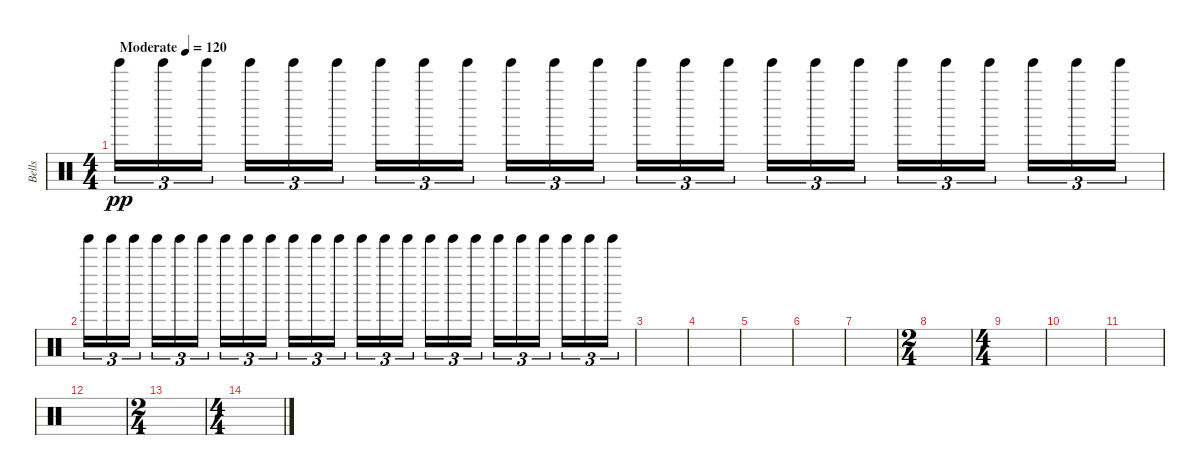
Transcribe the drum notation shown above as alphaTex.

\track ("Bells" "Bells") {instrument percussion}
\staff {score}
\articulation defaults
\ts (4 4)
\tempo (120 "Moderate")
\clef neutral
\ks c "Tinkle Bell (hit)".16{tu (3 2) dy pp} "Tinkle Bell (hit)".16{tu (3 2)} "Tinkle Bell (hit)".16{tu (3 2) beam splitsecondary} "Tinkle Bell (hit)".16{tu (3 2)} "Tinkle Bell (hit)".16{tu (3 2)} "Tinkle Bell (hit)".16{tu (3 2)} "Tinkle Bell (hit)".16{tu (3 2)} "Tinkle Bell (hit)".16{tu (3 2)} "Tinkle Bell (hit)".16{tu (3 2) beam splitsecondary} "Tinkle Bell (hit)".16{tu (3 2)} "Tinkle Bell (hit)".16{tu (3 2)} "Tinkle Bell (hit)".16{tu (3 2)} "Tinkle Bell (hit)".16{tu (3 2)} "Tinkle Bell (hit)".16{tu (3 2)} "Tinkle Bell (hit)".16{tu (3 2) beam splitsecondary} "Tinkle Bell (hit)".16{tu (3 2)} "Tinkle Bell (hit)".16{tu (3 2)} "Tinkle Bell (hit)".16{tu (3 2)} "Tinkle Bell (hit)".16{tu (3 2)} "Tinkle Bell (hit)".16{tu (3 2)} "Tinkle Bell (hit)".16{tu (3 2) beam splitsecondary} "Tinkle Bell (hit)".16{tu (3 2)} "Tinkle Bell (hit)".16{tu (3 2)} "Tinkle Bell (hit)".16{tu (3 2)}
|
"Tinkle Bell (hit)".16{tu (3 2)} "Tinkle Bell (hit)".16{tu (3 2)} "Tinkle Bell (hit)".16{tu (3 2) beam splitsecondary} "Tinkle Bell (hit)".16{tu (3 2)} "Tinkle Bell (hit)".16{tu (3 2)} "Tinkle Bell (hit)".16{tu (3 2)} "Tinkle Bell (hit)".16{tu (3 2)} "Tinkle Bell (hit)".16{tu (3 2)} "Tinkle Bell (hit)".16{tu (3 2) beam splitsecondary} "Tinkle Bell (hit)".16{tu (3 2)} "Tinkle Bell (hit)".16{tu (3 2)} "Tinkle Bell (hit)".16{tu (3 2)} "Tinkle Bell (hit)".16{tu (3 2)} "Tinkle Bell (hit)".16{tu (3 2)} "Tinkle Bell (hit)".16{tu (3 2) beam splitsecondary} "Tinkle Bell (hit)".16{tu (3 2)} "Tinkle Bell (hit)".16{tu (3 2)} "Tinkle Bell (hit)".16{tu (3 2)} "Tinkle Bell (hit)".16{tu (3 2)} "Tinkle Bell (hit)".16{tu (3 2)} "Tinkle Bell (hit)".16{tu (3 2) beam splitsecondary} "Tinkle Bell (hit)".16{tu (3 2)} "Tinkle Bell (hit)".16{tu (3 2)} "Tinkle Bell (hit)".16{tu (3 2)} |
|
|
|
|
|
\ts (2 4)
|
\ts (4 4)
|
|
|
|
\ts (2 4)
|
\ts (4 4)
